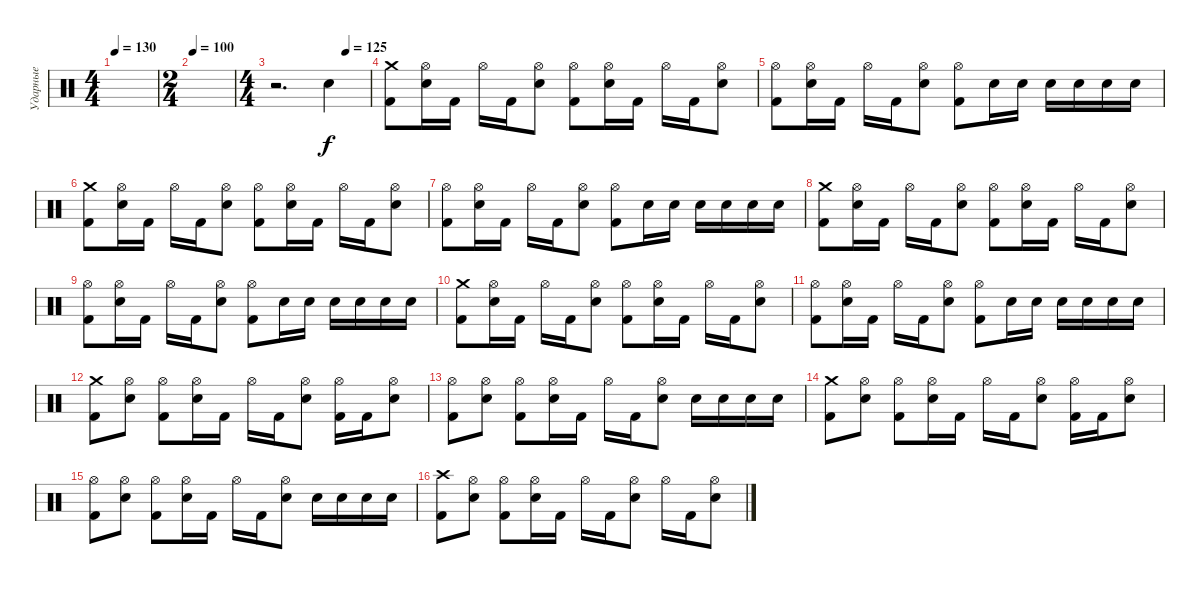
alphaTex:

\track ("Ударные" "Ударные") {instrument percussion}
\staff {score}
\articulation defaults
\ts (4 4)
\tempo 130
\clef neutral
\ks c
|
\ts (2 4)
\tempo 100
|
\ts (4 4)
\tempo (125 0.75)
r.2{d} "Snare (hit) 2".4 |
("Crash medium (hit)" "Kick (hit) 2").8{dy f} ("Hi-Hat (open)" "Snare (hit) 2").16 "Kick (hit) 2".16 "Hi-Hat (open)".16 "Kick (hit) 2".16 ("Hi-Hat (open)" "Snare (hit) 2").8 ("Hi-Hat (open)" "Kick (hit) 2").8 ("Hi-Hat (open)" "Snare (hit) 2").16 "Kick (hit) 2".16 "Hi-Hat (open)".16 "Kick (hit) 2".16 ("Hi-Hat (open)" "Snare (hit) 2").8 |
("Hi-Hat (open)" "Kick (hit) 2").8 ("Hi-Hat (open)" "Snare (hit) 2").16 "Kick (hit) 2".16 "Hi-Hat (open)".16 "Kick (hit) 2".16 ("Hi-Hat (open)" "Snare (hit) 2").8 ("Hi-Hat (open)" "Kick (hit) 2").8 "Snare (hit) 2".16 "Snare (hit) 2".16 "Snare (hit) 2".16 "Snare (hit) 2".16 "Snare (hit) 2".16 "Snare (hit) 2".16 |
("Crash medium (hit)" "Kick (hit) 2").8 ("Hi-Hat (open)" "Snare (hit) 2").16 "Kick (hit) 2".16 "Hi-Hat (open)".16 "Kick (hit) 2".16 ("Hi-Hat (open)" "Snare (hit) 2").8 ("Hi-Hat (open)" "Kick (hit) 2").8 ("Hi-Hat (open)" "Snare (hit) 2").16 "Kick (hit) 2".16 "Hi-Hat (open)".16 "Kick (hit) 2".16 ("Hi-Hat (open)" "Snare (hit) 2").8 |
("Hi-Hat (open)" "Kick (hit) 2").8 ("Hi-Hat (open)" "Snare (hit) 2").16 "Kick (hit) 2".16 "Hi-Hat (open)".16 "Kick (hit) 2".16 ("Hi-Hat (open)" "Snare (hit) 2").8 ("Hi-Hat (open)" "Kick (hit) 2").8 "Snare (hit) 2".16 "Snare (hit) 2".16 "Snare (hit) 2".16 "Snare (hit) 2".16 "Snare (hit) 2".16 "Snare (hit) 2".16 |
("Crash medium (hit)" "Kick (hit) 2").8 ("Hi-Hat (open)" "Snare (hit) 2").16 "Kick (hit) 2".16 "Hi-Hat (open)".16 "Kick (hit) 2".16 ("Hi-Hat (open)" "Snare (hit) 2").8 ("Hi-Hat (open)" "Kick (hit) 2").8 ("Hi-Hat (open)" "Snare (hit) 2").16 "Kick (hit) 2".16 "Hi-Hat (open)".16 "Kick (hit) 2".16 ("Hi-Hat (open)" "Snare (hit) 2").8 |
("Hi-Hat (open)" "Kick (hit) 2").8 ("Hi-Hat (open)" "Snare (hit) 2").16 "Kick (hit) 2".16 "Hi-Hat (open)".16 "Kick (hit) 2".16 ("Hi-Hat (open)" "Snare (hit) 2").8 ("Hi-Hat (open)" "Kick (hit) 2").8 "Snare (hit) 2".16 "Snare (hit) 2".16 "Snare (hit) 2".16 "Snare (hit) 2".16 "Snare (hit) 2".16 "Snare (hit) 2".16 |
("Crash medium (hit)" "Kick (hit) 2").8 ("Hi-Hat (open)" "Snare (hit) 2").16 "Kick (hit) 2".16 "Hi-Hat (open)".16 "Kick (hit) 2".16 ("Hi-Hat (open)" "Snare (hit) 2").8 ("Hi-Hat (open)" "Kick (hit) 2").8 ("Hi-Hat (open)" "Snare (hit) 2").16 "Kick (hit) 2".16 "Hi-Hat (open)".16 "Kick (hit) 2".16 ("Hi-Hat (open)" "Snare (hit) 2").8 |
("Hi-Hat (open)" "Kick (hit) 2").8 ("Hi-Hat (open)" "Snare (hit) 2").16 "Kick (hit) 2".16 "Hi-Hat (open)".16 "Kick (hit) 2".16 ("Hi-Hat (open)" "Snare (hit) 2").8 ("Hi-Hat (open)" "Kick (hit) 2").8 "Snare (hit) 2".16 "Snare (hit) 2".16 "Snare (hit) 2".16 "Snare (hit) 2".16 "Snare (hit) 2".16 "Snare (hit) 2".16 |
("Crash medium (hit)" "Kick (hit) 2").8 ("Hi-Hat (open)" "Snare (hit) 2").8 ("Hi-Hat (open)" "Kick (hit) 2").8 ("Hi-Hat (open)" "Snare (hit) 2").16 "Kick (hit) 2".16 "Hi-Hat (open)".16 "Kick (hit) 2".16 ("Hi-Hat (open)" "Snare (hit) 2").8 ("Hi-Hat (open)" "Kick (hit) 2").16 "Kick (hit) 2".16 ("Hi-Hat (open)" "Snare (hit) 2").8 |
("Hi-Hat (open)" "Kick (hit) 2").8 ("Hi-Hat (open)" "Snare (hit) 2").8 ("Hi-Hat (open)" "Kick (hit) 2").8 ("Hi-Hat (open)" "Snare (hit) 2").16 "Kick (hit) 2".16 "Hi-Hat (open)".16 "Kick (hit) 2".16 ("Hi-Hat (open)" "Snare (hit) 2").8 "Snare (hit) 2".16 "Snare (hit) 2".16 "Snare (hit) 2".16 "Snare (hit) 2".16 |
("Crash medium (hit)" "Kick (hit) 2").8 ("Hi-Hat (open)" "Snare (hit) 2").8 ("Hi-Hat (open)" "Kick (hit) 2").8 ("Hi-Hat (open)" "Snare (hit) 2").16 "Kick (hit) 2".16 "Hi-Hat (open)".16 "Kick (hit) 2".16 ("Hi-Hat (open)" "Snare (hit) 2").8 ("Hi-Hat (open)" "Kick (hit) 2").16 "Kick (hit) 2".16 ("Hi-Hat (open)" "Snare (hit) 2").8 |
("Hi-Hat (open)" "Kick (hit) 2").8 ("Hi-Hat (open)" "Snare (hit) 2").8 ("Hi-Hat (open)" "Kick (hit) 2").8 ("Hi-Hat (open)" "Snare (hit) 2").16 "Kick (hit) 2".16 "Hi-Hat (open)".16 "Kick (hit) 2".16 ("Hi-Hat (open)" "Snare (hit) 2").8 "Snare (hit) 2".16 "Snare (hit) 2".16 "Snare (hit) 2".16 "Snare (hit) 2".16 |
("Crash high (hit)" "Kick (hit) 2").8 ("Hi-Hat (open)" "Snare (hit) 2").8 ("Hi-Hat (open)" "Kick (hit) 2").8 ("Hi-Hat (open)" "Snare (hit) 2").16 "Kick (hit) 2".16 "Hi-Hat (open)".16 "Kick (hit) 2".16 ("Hi-Hat (open)" "Snare (hit) 2").8 "Hi-Hat (open)".16 "Kick (hit) 2".16 ("Hi-Hat (open)" "Snare (hit) 2").8
